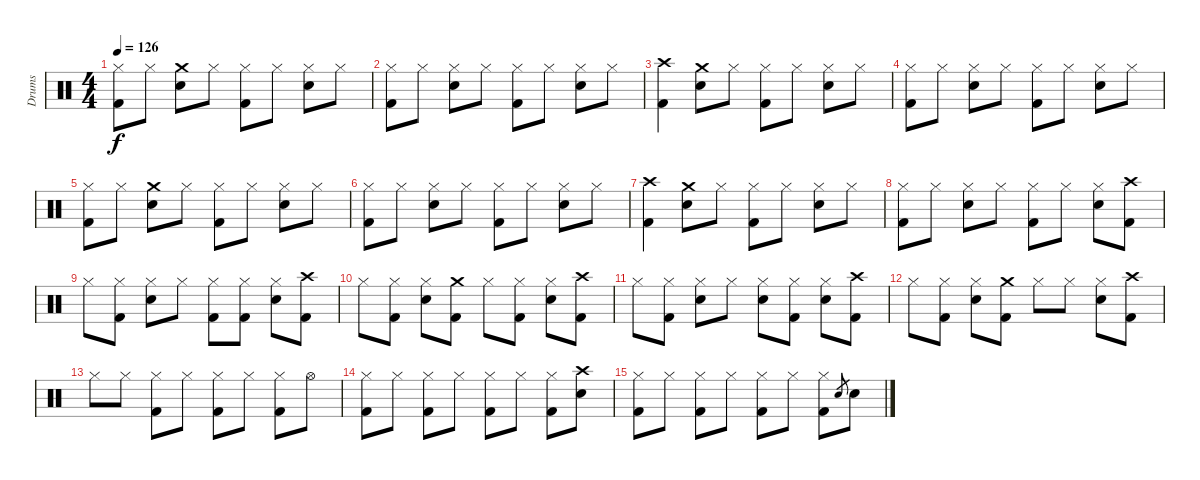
\track ("Drums" "Drums") {instrument percussion}
\staff {score}
\articulation defaults
\ts (4 4)
\tempo 126
\clef neutral
\ks c
("Hi-Hat (closed)" "Kick (hit) 2").8{dy f} "Hi-Hat (closed)".8 ("Crash medium (hit)" "Snare (hit) 2").8 "Hi-Hat (closed)".8 ("Hi-Hat (closed)" "Kick (hit) 2").8 "Hi-Hat (closed)".8 ("Hi-Hat (closed)" "Snare (hit) 2").8 "Hi-Hat (closed)".8 |
("Hi-Hat (closed)" "Kick (hit) 2").8 "Hi-Hat (closed)".8 ("Hi-Hat (closed)" "Snare (hit) 2").8 "Hi-Hat (closed)".8 ("Hi-Hat (closed)" "Kick (hit) 2").8 "Hi-Hat (closed)".8 ("Hi-Hat (closed)" "Snare (hit) 2").8 "Hi-Hat (closed)".8 |
("Crash high (hit)" "Kick (hit) 2").4 ("Crash medium (hit)" "Snare (hit) 2").8 "Hi-Hat (closed)".8 ("Hi-Hat (closed)" "Kick (hit) 2").8 "Hi-Hat (closed)".8 ("Hi-Hat (closed)" "Snare (hit) 2").8 "Hi-Hat (closed)".8 |
("Hi-Hat (closed)" "Kick (hit) 2").8 "Hi-Hat (closed)".8 ("Hi-Hat (closed)" "Snare (hit) 2").8 "Hi-Hat (closed)".8 ("Hi-Hat (closed)" "Kick (hit) 2").8 "Hi-Hat (closed)".8 ("Hi-Hat (closed)" "Snare (hit) 2").8 "Hi-Hat (closed)".8 |
("Hi-Hat (closed)" "Kick (hit) 2").8 "Hi-Hat (closed)".8 ("Crash medium (hit)" "Snare (hit) 2").8 "Hi-Hat (closed)".8 ("Hi-Hat (closed)" "Kick (hit) 2").8 "Hi-Hat (closed)".8 ("Hi-Hat (closed)" "Snare (hit) 2").8 "Hi-Hat (closed)".8 |
("Hi-Hat (closed)" "Kick (hit) 2").8 "Hi-Hat (closed)".8 ("Hi-Hat (closed)" "Snare (hit) 2").8 "Hi-Hat (closed)".8 ("Hi-Hat (closed)" "Kick (hit) 2").8 "Hi-Hat (closed)".8 ("Hi-Hat (closed)" "Snare (hit) 2").8 "Hi-Hat (closed)".8 |
("Crash high (hit)" "Kick (hit) 2").4 ("Crash medium (hit)" "Snare (hit) 2").8 "Hi-Hat (closed)".8 ("Hi-Hat (closed)" "Kick (hit) 2").8 "Hi-Hat (closed)".8 ("Hi-Hat (closed)" "Snare (hit) 2").8 "Hi-Hat (closed)".8 |
("Hi-Hat (closed)" "Kick (hit) 2").8 "Hi-Hat (closed)".8 ("Hi-Hat (closed)" "Snare (hit) 2").8 "Hi-Hat (closed)".8 ("Hi-Hat (closed)" "Kick (hit) 2").8 "Hi-Hat (closed)".8 ("Hi-Hat (closed)" "Snare (hit) 2").8 ("Crash high (hit)" "Kick (hit) 2").8 |
"Hi-Hat (closed)".8 ("Hi-Hat (closed)" "Kick (hit) 2").8 ("Hi-Hat (closed)" "Snare (hit) 2").8 "Hi-Hat (closed)".8 ("Hi-Hat (closed)" "Kick (hit) 2").8 ("Hi-Hat (closed)" "Kick (hit) 2").8 ("Hi-Hat (closed)" "Snare (hit) 2").8 ("Crash high (hit)" "Kick (hit) 2").8 |
"Hi-Hat (closed)".8 ("Hi-Hat (closed)" "Kick (hit) 2").8 ("Hi-Hat (closed)" "Snare (hit) 2").8 ("Crash medium (hit)" "Kick (hit) 2").8 "Hi-Hat (closed)".8 ("Hi-Hat (closed)" "Kick (hit) 2").8 ("Hi-Hat (closed)" "Snare (hit) 2").8 ("Crash high (hit)" "Kick (hit) 2").8 |
"Hi-Hat (closed)".8 ("Hi-Hat (closed)" "Kick (hit) 2").8 ("Hi-Hat (closed)" "Snare (hit) 2").8 "Hi-Hat (closed)".8 ("Hi-Hat (closed)" "Snare (hit) 2").8 ("Hi-Hat (closed)" "Kick (hit) 2").8 ("Hi-Hat (closed)" "Snare (hit) 2").8 ("Crash high (hit)" "Kick (hit) 2").8 |
"Hi-Hat (closed)".8 ("Hi-Hat (closed)" "Kick (hit) 2").8 ("Hi-Hat (closed)" "Snare (hit) 2").8 ("Crash medium (hit)" "Kick (hit) 2").8 "Hi-Hat (closed)".8 "Hi-Hat (closed)".8 ("Hi-Hat (closed)" "Snare (hit) 2").8 ("Crash high (hit)" "Kick (hit) 2").8 |
"Hi-Hat (closed)".8 "Hi-Hat (closed)".8 ("Hi-Hat (closed)" "Kick (hit) 2").8 "Hi-Hat (closed)".8 ("Hi-Hat (closed)" "Kick (hit) 2").8 "Hi-Hat (closed)".8 ("Hi-Hat (closed)" "Kick (hit) 2").8 "Hi-Hat (open)".8 |
("Hi-Hat (closed)" "Kick (hit) 2").8 "Hi-Hat (closed)".8 ("Hi-Hat (closed)" "Kick (hit) 2").8 "Hi-Hat (closed)".8 ("Hi-Hat (closed)" "Kick (hit) 2").8 "Hi-Hat (closed)".8 ("Hi-Hat (closed)" "Kick (hit) 2").8 ("Crash high (hit)" "Snare (hit) 2").8 |
("Hi-Hat (closed)" "Kick (hit) 2").8 "Hi-Hat (closed)".8 ("Hi-Hat (closed)" "Kick (hit) 2").8 "Hi-Hat (closed)".8 ("Hi-Hat (closed)" "Kick (hit) 2").8 "Hi-Hat (closed)".8 ("Hi-Hat (closed)" "Kick (hit) 2").8 "Snare (hit) 2".8{gr} "Snare (hit) 2".8
